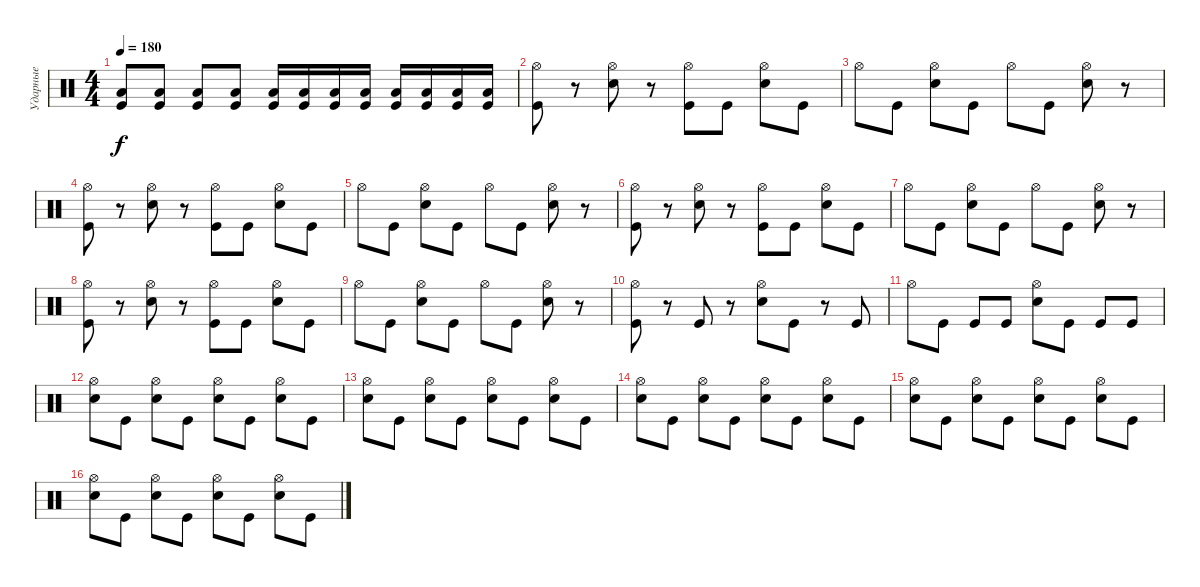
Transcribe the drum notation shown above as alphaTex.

\track ("Ударные" "Ударные") {instrument percussion}
\staff {score}
\articulation defaults
\ts (4 4)
\tempo 180
\clef neutral
\ks c
("Low Tom (hit)" "Kick (hit)").8{dy f} ("Low Tom (hit)" "Kick (hit)").8 ("Low Tom (hit)" "Kick (hit)").8 ("Low Tom (hit)" "Kick (hit)").8 ("Low Tom (hit)" "Kick (hit)").16 ("Low Tom (hit)" "Kick (hit)").16 ("Low Tom (hit)" "Kick (hit)").16 ("Low Tom (hit)" "Kick (hit)").16 ("Low Tom (hit)" "Kick (hit)").16 ("Low Tom (hit)" "Kick (hit)").16 ("Low Tom (hit)" "Kick (hit)").16 ("Low Tom (hit)" "Kick (hit)").16 |
("Hi-Hat (open)" "Kick (hit)").8 r.8 ("Hi-Hat (open)" "Electric Snare (hit)").8 r.8 ("Hi-Hat (open)" "Kick (hit)").8 "Kick (hit)".8 ("Hi-Hat (open)" "Electric Snare (hit)").8 "Kick (hit)".8 |
"Hi-Hat (open)".8 "Kick (hit)".8 ("Hi-Hat (open)" "Electric Snare (hit)").8 "Kick (hit)".8 "Hi-Hat (open)".8 "Kick (hit)".8 ("Hi-Hat (open)" "Electric Snare (hit)").8 r.8 |
("Hi-Hat (open)" "Kick (hit)").8 r.8 ("Hi-Hat (open)" "Electric Snare (hit)").8 r.8 ("Hi-Hat (open)" "Kick (hit)").8 "Kick (hit)".8 ("Hi-Hat (open)" "Electric Snare (hit)").8 "Kick (hit)".8 |
"Hi-Hat (open)".8 "Kick (hit)".8 ("Hi-Hat (open)" "Electric Snare (hit)").8 "Kick (hit)".8 "Hi-Hat (open)".8 "Kick (hit)".8 ("Hi-Hat (open)" "Electric Snare (hit)").8 r.8 |
("Hi-Hat (open)" "Kick (hit)").8 r.8 ("Hi-Hat (open)" "Electric Snare (hit)").8 r.8 ("Hi-Hat (open)" "Kick (hit)").8 "Kick (hit)".8 ("Hi-Hat (open)" "Electric Snare (hit)").8 "Kick (hit)".8 |
"Hi-Hat (open)".8 "Kick (hit)".8 ("Hi-Hat (open)" "Electric Snare (hit)").8 "Kick (hit)".8 "Hi-Hat (open)".8 "Kick (hit)".8 ("Hi-Hat (open)" "Electric Snare (hit)").8 r.8 |
("Hi-Hat (open)" "Kick (hit)").8 r.8 ("Hi-Hat (open)" "Electric Snare (hit)").8 r.8 ("Hi-Hat (open)" "Kick (hit)").8 "Kick (hit)".8 ("Hi-Hat (open)" "Electric Snare (hit)").8 "Kick (hit)".8 |
"Hi-Hat (open)".8 "Kick (hit)".8 ("Hi-Hat (open)" "Electric Snare (hit)").8 "Kick (hit)".8 "Hi-Hat (open)".8 "Kick (hit)".8 ("Hi-Hat (open)" "Electric Snare (hit)").8 r.8 |
("Hi-Hat (open)" "Kick (hit)").8 r.8 "Kick (hit)".8 r.8 ("Hi-Hat (open)" "Electric Snare (hit)").8 "Kick (hit)".8 r.8 "Kick (hit)".8 |
"Hi-Hat (open)".8 "Kick (hit)".8 "Kick (hit)".8 "Kick (hit)".8 ("Hi-Hat (open)" "Electric Snare (hit)").8 "Kick (hit)".8 "Kick (hit)".8 "Kick (hit)".8 |
("Hi-Hat (open)" "Electric Snare (hit)").8 "Kick (hit)".8 ("Hi-Hat (open)" "Electric Snare (hit)").8 "Kick (hit)".8 ("Hi-Hat (open)" "Electric Snare (hit)").8 "Kick (hit)".8 ("Hi-Hat (open)" "Electric Snare (hit)").8 "Kick (hit)".8 |
("Hi-Hat (open)" "Electric Snare (hit)").8 "Kick (hit)".8 ("Hi-Hat (open)" "Electric Snare (hit)").8 "Kick (hit)".8 ("Hi-Hat (open)" "Electric Snare (hit)").8 "Kick (hit)".8 ("Hi-Hat (open)" "Electric Snare (hit)").8 "Kick (hit)".8 |
("Hi-Hat (open)" "Electric Snare (hit)").8 "Kick (hit)".8 ("Hi-Hat (open)" "Electric Snare (hit)").8 "Kick (hit)".8 ("Hi-Hat (open)" "Electric Snare (hit)").8 "Kick (hit)".8 ("Hi-Hat (open)" "Electric Snare (hit)").8 "Kick (hit)".8 |
("Hi-Hat (open)" "Electric Snare (hit)").8 "Kick (hit)".8 ("Hi-Hat (open)" "Electric Snare (hit)").8 "Kick (hit)".8 ("Hi-Hat (open)" "Electric Snare (hit)").8 "Kick (hit)".8 ("Hi-Hat (open)" "Electric Snare (hit)").8 "Kick (hit)".8 |
("Hi-Hat (open)" "Electric Snare (hit)").8 "Kick (hit)".8 ("Hi-Hat (open)" "Electric Snare (hit)").8 "Kick (hit)".8 ("Hi-Hat (open)" "Electric Snare (hit)").8 "Kick (hit)".8 ("Hi-Hat (open)" "Electric Snare (hit)").8 "Kick (hit)".8
